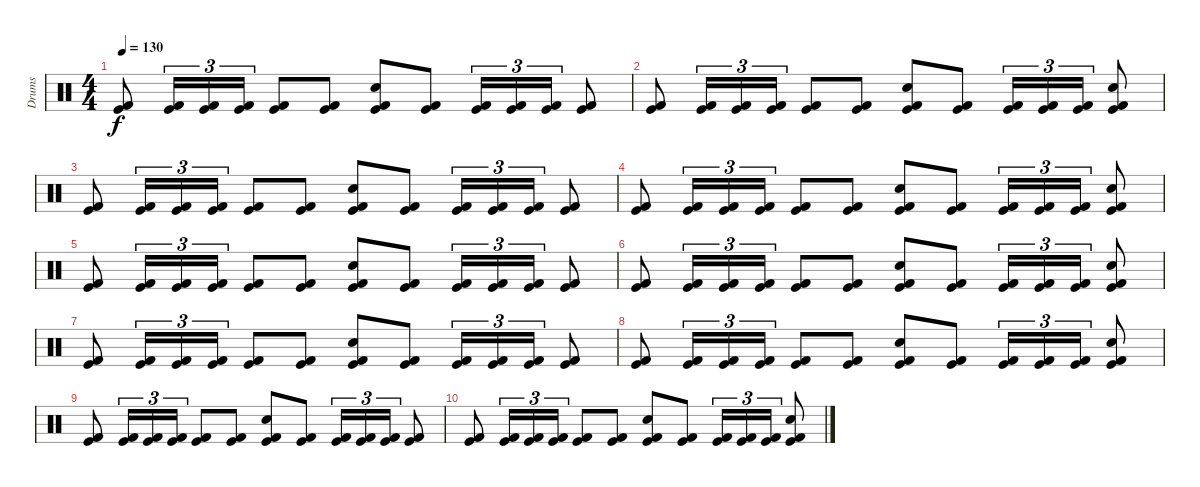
\track ("Drums" "Drums") {instrument percussion}
\staff {score}
\articulation defaults
\ts (4 4)
\tempo 130
\clef neutral
\ks c
("Kick (hit)" "Kick (hit) 2").8{dy f} ("Kick (hit)" "Kick (hit) 2").16{tu (3 2)} ("Kick (hit)" "Kick (hit) 2").16{tu (3 2)} ("Kick (hit)" "Kick (hit) 2").16{tu (3 2)} ("Kick (hit)" "Kick (hit) 2").8 ("Kick (hit)" "Kick (hit) 2").8 ("Electric Snare (hit)" "Kick (hit)" "Kick (hit) 2").8 ("Kick (hit)" "Kick (hit) 2").8 ("Kick (hit)" "Kick (hit) 2").16{tu (3 2)} ("Kick (hit)" "Kick (hit) 2").16{tu (3 2)} ("Kick (hit)" "Kick (hit) 2").16{tu (3 2)} ("Kick (hit)" "Kick (hit) 2").8 |
("Kick (hit)" "Kick (hit) 2").8 ("Kick (hit)" "Kick (hit) 2").16{tu (3 2)} ("Kick (hit)" "Kick (hit) 2").16{tu (3 2)} ("Kick (hit)" "Kick (hit) 2").16{tu (3 2)} ("Kick (hit)" "Kick (hit) 2").8 ("Kick (hit)" "Kick (hit) 2").8 ("Electric Snare (hit)" "Kick (hit)" "Kick (hit) 2").8 ("Kick (hit)" "Kick (hit) 2").8 ("Kick (hit)" "Kick (hit) 2").16{tu (3 2)} ("Kick (hit)" "Kick (hit) 2").16{tu (3 2)} ("Kick (hit)" "Kick (hit) 2").16{tu (3 2)} ("Electric Snare (hit)" "Kick (hit)" "Kick (hit) 2").8 |
("Kick (hit)" "Kick (hit) 2").8 ("Kick (hit)" "Kick (hit) 2").16{tu (3 2)} ("Kick (hit)" "Kick (hit) 2").16{tu (3 2)} ("Kick (hit)" "Kick (hit) 2").16{tu (3 2)} ("Kick (hit)" "Kick (hit) 2").8 ("Kick (hit)" "Kick (hit) 2").8 ("Electric Snare (hit)" "Kick (hit)" "Kick (hit) 2").8 ("Kick (hit)" "Kick (hit) 2").8 ("Kick (hit)" "Kick (hit) 2").16{tu (3 2)} ("Kick (hit)" "Kick (hit) 2").16{tu (3 2)} ("Kick (hit)" "Kick (hit) 2").16{tu (3 2)} ("Kick (hit)" "Kick (hit) 2").8 |
("Kick (hit)" "Kick (hit) 2").8 ("Kick (hit)" "Kick (hit) 2").16{tu (3 2)} ("Kick (hit)" "Kick (hit) 2").16{tu (3 2)} ("Kick (hit)" "Kick (hit) 2").16{tu (3 2)} ("Kick (hit)" "Kick (hit) 2").8 ("Kick (hit)" "Kick (hit) 2").8 ("Electric Snare (hit)" "Kick (hit)" "Kick (hit) 2").8 ("Kick (hit)" "Kick (hit) 2").8 ("Kick (hit)" "Kick (hit) 2").16{tu (3 2)} ("Kick (hit)" "Kick (hit) 2").16{tu (3 2)} ("Kick (hit)" "Kick (hit) 2").16{tu (3 2)} ("Electric Snare (hit)" "Kick (hit)" "Kick (hit) 2").8 |
("Kick (hit)" "Kick (hit) 2").8 ("Kick (hit)" "Kick (hit) 2").16{tu (3 2)} ("Kick (hit)" "Kick (hit) 2").16{tu (3 2)} ("Kick (hit)" "Kick (hit) 2").16{tu (3 2)} ("Kick (hit)" "Kick (hit) 2").8 ("Kick (hit)" "Kick (hit) 2").8 ("Electric Snare (hit)" "Kick (hit)" "Kick (hit) 2").8 ("Kick (hit)" "Kick (hit) 2").8 ("Kick (hit)" "Kick (hit) 2").16{tu (3 2)} ("Kick (hit)" "Kick (hit) 2").16{tu (3 2)} ("Kick (hit)" "Kick (hit) 2").16{tu (3 2)} ("Kick (hit)" "Kick (hit) 2").8 |
("Kick (hit)" "Kick (hit) 2").8 ("Kick (hit)" "Kick (hit) 2").16{tu (3 2)} ("Kick (hit)" "Kick (hit) 2").16{tu (3 2)} ("Kick (hit)" "Kick (hit) 2").16{tu (3 2)} ("Kick (hit)" "Kick (hit) 2").8 ("Kick (hit)" "Kick (hit) 2").8 ("Electric Snare (hit)" "Kick (hit)" "Kick (hit) 2").8 ("Kick (hit)" "Kick (hit) 2").8 ("Kick (hit)" "Kick (hit) 2").16{tu (3 2)} ("Kick (hit)" "Kick (hit) 2").16{tu (3 2)} ("Kick (hit)" "Kick (hit) 2").16{tu (3 2)} ("Electric Snare (hit)" "Kick (hit)" "Kick (hit) 2").8 |
("Kick (hit)" "Kick (hit) 2").8 ("Kick (hit)" "Kick (hit) 2").16{tu (3 2)} ("Kick (hit)" "Kick (hit) 2").16{tu (3 2)} ("Kick (hit)" "Kick (hit) 2").16{tu (3 2)} ("Kick (hit)" "Kick (hit) 2").8 ("Kick (hit)" "Kick (hit) 2").8 ("Electric Snare (hit)" "Kick (hit)" "Kick (hit) 2").8 ("Kick (hit)" "Kick (hit) 2").8 ("Kick (hit)" "Kick (hit) 2").16{tu (3 2)} ("Kick (hit)" "Kick (hit) 2").16{tu (3 2)} ("Kick (hit)" "Kick (hit) 2").16{tu (3 2)} ("Kick (hit)" "Kick (hit) 2").8 |
("Kick (hit)" "Kick (hit) 2").8 ("Kick (hit)" "Kick (hit) 2").16{tu (3 2)} ("Kick (hit)" "Kick (hit) 2").16{tu (3 2)} ("Kick (hit)" "Kick (hit) 2").16{tu (3 2)} ("Kick (hit)" "Kick (hit) 2").8 ("Kick (hit)" "Kick (hit) 2").8 ("Electric Snare (hit)" "Kick (hit)" "Kick (hit) 2").8 ("Kick (hit)" "Kick (hit) 2").8 ("Kick (hit)" "Kick (hit) 2").16{tu (3 2)} ("Kick (hit)" "Kick (hit) 2").16{tu (3 2)} ("Kick (hit)" "Kick (hit) 2").16{tu (3 2)} ("Electric Snare (hit)" "Kick (hit)" "Kick (hit) 2").8 |
("Kick (hit)" "Kick (hit) 2").8 ("Kick (hit)" "Kick (hit) 2").16{tu (3 2)} ("Kick (hit)" "Kick (hit) 2").16{tu (3 2)} ("Kick (hit)" "Kick (hit) 2").16{tu (3 2)} ("Kick (hit)" "Kick (hit) 2").8 ("Kick (hit)" "Kick (hit) 2").8 ("Electric Snare (hit)" "Kick (hit)" "Kick (hit) 2").8 ("Kick (hit)" "Kick (hit) 2").8 ("Kick (hit)" "Kick (hit) 2").16{tu (3 2)} ("Kick (hit)" "Kick (hit) 2").16{tu (3 2)} ("Kick (hit)" "Kick (hit) 2").16{tu (3 2)} ("Kick (hit)" "Kick (hit) 2").8 |
("Kick (hit)" "Kick (hit) 2").8 ("Kick (hit)" "Kick (hit) 2").16{tu (3 2)} ("Kick (hit)" "Kick (hit) 2").16{tu (3 2)} ("Kick (hit)" "Kick (hit) 2").16{tu (3 2)} ("Kick (hit)" "Kick (hit) 2").8 ("Kick (hit)" "Kick (hit) 2").8 ("Electric Snare (hit)" "Kick (hit)" "Kick (hit) 2").8 ("Kick (hit)" "Kick (hit) 2").8 ("Kick (hit)" "Kick (hit) 2").16{tu (3 2)} ("Kick (hit)" "Kick (hit) 2").16{tu (3 2)} ("Kick (hit)" "Kick (hit) 2").16{tu (3 2)} ("Electric Snare (hit)" "Kick (hit)" "Kick (hit) 2").8
